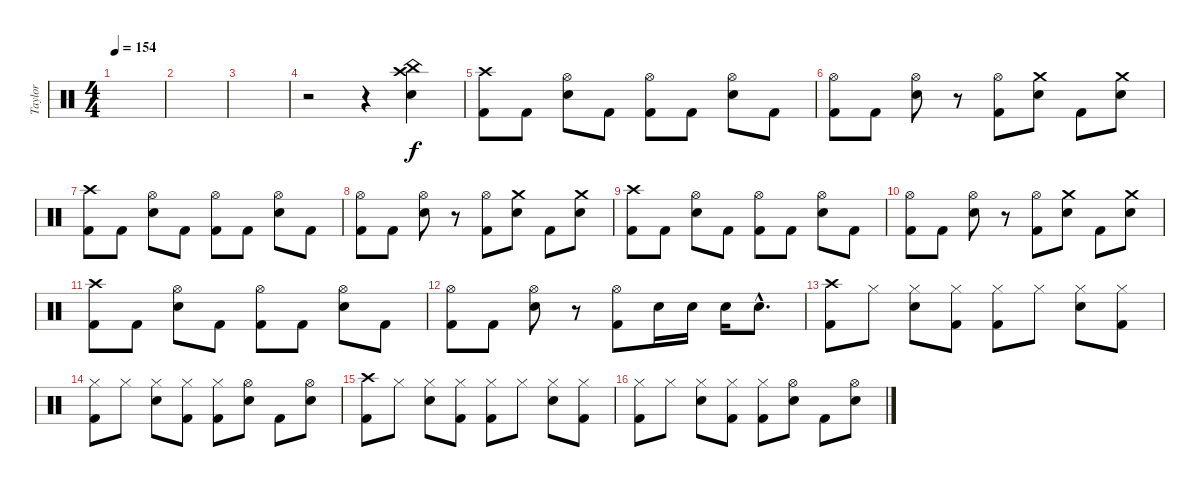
\track ("Taylor" "Taylor") {instrument percussion}
\staff {score}
\articulation defaults
\ts (4 4)
\tempo 154
\clef neutral
\ks c
|
|
|
r.2 r.4 ("China (hit)" "Crash high (hit)" "Snare (hit) 2").4 |
("Crash high (hit)" "Kick (hit) 2").8 "Kick (hit) 2".8 ("Hi-Hat (open)" "Snare (hit) 2").8 "Kick (hit) 2".8 ("Hi-Hat (open)" "Kick (hit) 2").8 "Kick (hit) 2".8 ("Hi-Hat (open)" "Snare (hit) 2").8 "Kick (hit) 2".8 |
("Hi-Hat (open)" "Kick (hit) 2").8 "Kick (hit) 2".8 ("Hi-Hat (open)" "Snare (hit) 2").8 r.8 ("Hi-Hat (open)" "Kick (hit) 2").8 ("Crash medium (hit)" "Snare (hit) 2").8 "Kick (hit) 2".8 ("Crash medium (hit)" "Snare (hit) 2").8 |
("Crash high (hit)" "Kick (hit) 2").8 "Kick (hit) 2".8 ("Hi-Hat (open)" "Snare (hit) 2").8 "Kick (hit) 2".8 ("Hi-Hat (open)" "Kick (hit) 2").8 "Kick (hit) 2".8 ("Hi-Hat (open)" "Snare (hit) 2").8 "Kick (hit) 2".8 |
("Hi-Hat (open)" "Kick (hit) 2").8 "Kick (hit) 2".8 ("Hi-Hat (open)" "Snare (hit) 2").8 r.8 ("Hi-Hat (open)" "Kick (hit) 2").8 ("Crash medium (hit)" "Snare (hit) 2").8 "Kick (hit) 2".8 ("Crash medium (hit)" "Snare (hit) 2").8 |
("Crash high (hit)" "Kick (hit) 2").8 "Kick (hit) 2".8 ("Hi-Hat (open)" "Snare (hit) 2").8 "Kick (hit) 2".8 ("Hi-Hat (open)" "Kick (hit) 2").8 "Kick (hit) 2".8 ("Hi-Hat (open)" "Snare (hit) 2").8 "Kick (hit) 2".8 |
("Hi-Hat (open)" "Kick (hit) 2").8 "Kick (hit) 2".8 ("Hi-Hat (open)" "Snare (hit) 2").8 r.8 ("Hi-Hat (open)" "Kick (hit) 2").8 ("Crash medium (hit)" "Snare (hit) 2").8 "Kick (hit) 2".8 ("Crash medium (hit)" "Snare (hit) 2").8 |
("Crash high (hit)" "Kick (hit) 2").8 "Kick (hit) 2".8 ("Hi-Hat (open)" "Snare (hit) 2").8 "Kick (hit) 2".8 ("Hi-Hat (open)" "Kick (hit) 2").8 "Kick (hit) 2".8 ("Hi-Hat (open)" "Snare (hit) 2").8 "Kick (hit) 2".8 |
("Hi-Hat (open)" "Kick (hit) 2").8 "Kick (hit) 2".8 ("Hi-Hat (open)" "Snare (hit) 2").8 r.8 ("Hi-Hat (open)" "Kick (hit) 2").8 "Snare (hit) 2".16 "Snare (hit) 2".16 "Snare (hit) 2".16 "Snare (hit) 2"{hac}.8{d} |
("Crash high (hit)" "Kick (hit) 2").8 "Hi-Hat (closed)".8 ("Hi-Hat (closed)" "Snare (hit) 2").8 ("Hi-Hat (closed)" "Kick (hit) 2").8 ("Hi-Hat (closed)" "Kick (hit) 2").8 "Hi-Hat (closed)".8 ("Hi-Hat (closed)" "Snare (hit) 2").8 ("Hi-Hat (closed)" "Kick (hit) 2").8 |
("Hi-Hat (closed)" "Kick (hit) 2").8 "Hi-Hat (closed)".8 ("Hi-Hat (closed)" "Snare (hit) 2").8 ("Hi-Hat (closed)" "Kick (hit) 2").8 ("Hi-Hat (closed)" "Kick (hit) 2").8 ("Hi-Hat (open)" "Snare (hit) 2").8 "Kick (hit) 2".8 ("Hi-Hat (open)" "Snare (hit) 2").8 |
("Crash high (hit)" "Kick (hit) 2").8 "Hi-Hat (closed)".8 ("Hi-Hat (closed)" "Snare (hit) 2").8 ("Hi-Hat (closed)" "Kick (hit) 2").8 ("Hi-Hat (closed)" "Kick (hit) 2").8 "Hi-Hat (closed)".8 ("Hi-Hat (closed)" "Snare (hit) 2").8 ("Hi-Hat (closed)" "Kick (hit) 2").8 |
("Hi-Hat (closed)" "Kick (hit) 2").8 "Hi-Hat (closed)".8 ("Hi-Hat (closed)" "Snare (hit) 2").8 ("Hi-Hat (closed)" "Kick (hit) 2").8 ("Hi-Hat (closed)" "Kick (hit) 2").8 ("Hi-Hat (open)" "Snare (hit) 2").8 "Kick (hit) 2".8 ("Hi-Hat (open)" "Snare (hit) 2").8
